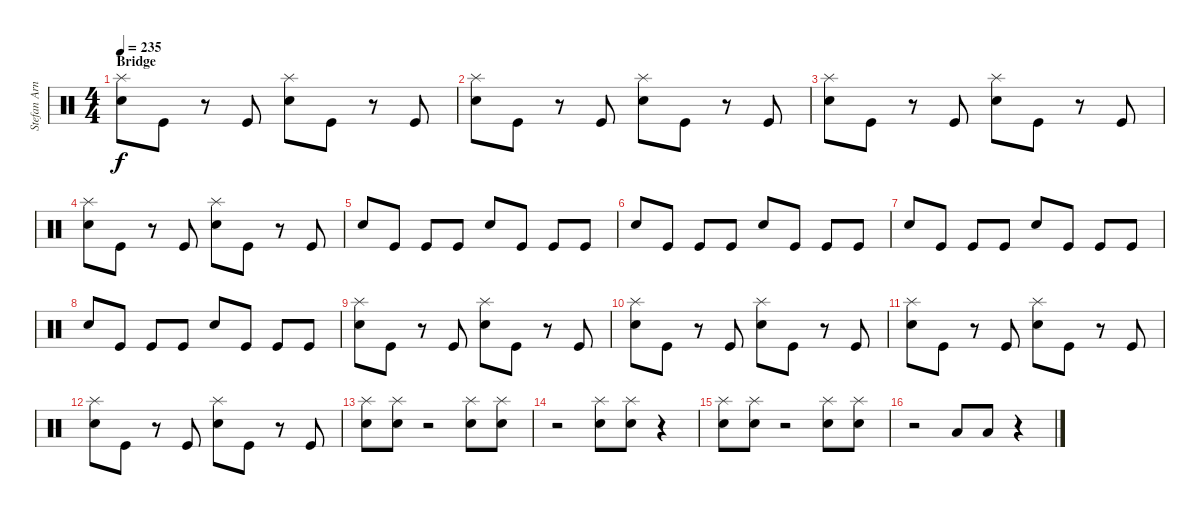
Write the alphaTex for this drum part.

\track ("Stefan Arnold" "Stefan Arn") {instrument percussion}
\staff {score}
\articulation defaults
\ts (4 4)
\section ("" "Bridge")
\tempo 235
\clef neutral
\ks c
("Electric Snare (hit)" "Splash (hit)").8{dy f} "Kick (hit)".8 r.8 "Kick (hit)".8 ("Electric Snare (hit)" "Splash (hit)").8 "Kick (hit)".8 r.8 "Kick (hit)".8 |
("Electric Snare (hit)" "Splash (hit)").8 "Kick (hit)".8 r.8 "Kick (hit)".8 ("Electric Snare (hit)" "Splash (hit)").8 "Kick (hit)".8 r.8 "Kick (hit)".8 |
("Electric Snare (hit)" "Splash (hit)").8 "Kick (hit)".8 r.8 "Kick (hit)".8 ("Electric Snare (hit)" "Splash (hit)").8 "Kick (hit)".8 r.8 "Kick (hit)".8 |
("Electric Snare (hit)" "Splash (hit)").8 "Kick (hit)".8 r.8 "Kick (hit)".8 ("Electric Snare (hit)" "Splash (hit)").8 "Kick (hit)".8 r.8 "Kick (hit)".8 |
"Electric Snare (hit)".8 "Kick (hit)".8 "Kick (hit)".8 "Kick (hit)".8 "Electric Snare (hit)".8 "Kick (hit)".8 "Kick (hit)".8 "Kick (hit)".8 |
"Electric Snare (hit)".8 "Kick (hit)".8 "Kick (hit)".8 "Kick (hit)".8 "Electric Snare (hit)".8 "Kick (hit)".8 "Kick (hit)".8 "Kick (hit)".8 |
"Electric Snare (hit)".8 "Kick (hit)".8 "Kick (hit)".8 "Kick (hit)".8 "Electric Snare (hit)".8 "Kick (hit)".8 "Kick (hit)".8 "Kick (hit)".8 |
"Electric Snare (hit)".8 "Kick (hit)".8 "Kick (hit)".8 "Kick (hit)".8 "Electric Snare (hit)".8 "Kick (hit)".8 "Kick (hit)".8 "Kick (hit)".8 |
("Electric Snare (hit)" "Splash (hit)").8 "Kick (hit)".8 r.8 "Kick (hit)".8 ("Electric Snare (hit)" "Splash (hit)").8 "Kick (hit)".8 r.8 "Kick (hit)".8 |
("Electric Snare (hit)" "Splash (hit)").8 "Kick (hit)".8 r.8 "Kick (hit)".8 ("Electric Snare (hit)" "Splash (hit)").8 "Kick (hit)".8 r.8 "Kick (hit)".8 |
("Electric Snare (hit)" "Splash (hit)").8 "Kick (hit)".8 r.8 "Kick (hit)".8 ("Electric Snare (hit)" "Splash (hit)").8 "Kick (hit)".8 r.8 "Kick (hit)".8 |
("Electric Snare (hit)" "Splash (hit)").8 "Kick (hit)".8 r.8 "Kick (hit)".8 ("Electric Snare (hit)" "Splash (hit)").8 "Kick (hit)".8 r.8 "Kick (hit)".8 |
("Electric Snare (hit)" "Splash (hit)").8 ("Electric Snare (hit)" "Splash (hit)").8 r.2 ("Electric Snare (hit)" "Splash (hit)").8 ("Electric Snare (hit)" "Splash (hit)").8 |
r.2 ("Electric Snare (hit)" "Splash (hit)").8 ("Electric Snare (hit)" "Splash (hit)").8 r.4 |
("Electric Snare (hit)" "Splash (hit)").8 ("Electric Snare (hit)" "Splash (hit)").8 r.2 ("Electric Snare (hit)" "Splash (hit)").8 ("Electric Snare (hit)" "Splash (hit)").8 |
r.2 "Low Tom (hit)".8 "Low Tom (hit)".8 r.4
